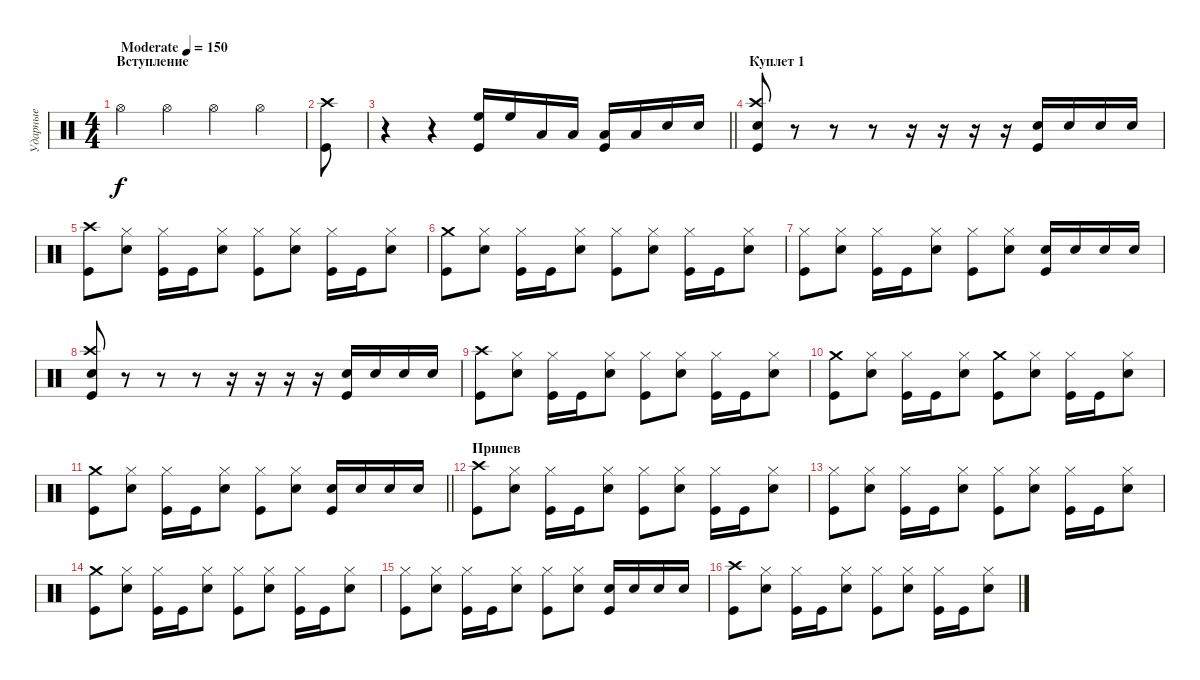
\track ("Ударные" "Ударные") {instrument percussion}
\staff {score}
\articulation defaults
\ts (4 4)
\section ("" "Вступление")
\tempo (150 "Moderate")
\clef neutral
\ks c "Hi-Hat (open)".4{dy f} "Hi-Hat (open)".4 "Hi-Hat (open)".4 "Hi-Hat (open)".4
|
("Kick (hit)" "Crash high (hit)").8 |
\barLineRight lightlight
r.4 r.4 ("High Floor Tom (hit)" "Kick (hit)").16 "High Floor Tom (hit)".16 "Low Tom (hit)".16 "Low Tom (hit)".16 ("Low Floor Tom (hit)" "Kick (hit)").16 "Low Floor Tom (hit)".16 "Snare (hit) 2".16 "Snare (hit) 2".16 |
\section ("" "Куплет 1")
("Kick (hit)" "Snare (hit) 2" "Crash high (hit)").8 r.8 r.8 r.8 r.16 r.16 r.16 r.16 ("Snare (hit) 2" "Kick (hit)").16 "Snare (hit) 2".16 "Snare (hit) 2".16 "Snare (hit) 2".16 |
("Kick (hit)" "Crash high (hit)").8 ("Snare (hit) 2" "Hi-Hat (closed)").8 ("Kick (hit)" "Hi-Hat (closed)").16 "Kick (hit)".16 ("Snare (hit) 2" "Hi-Hat (closed)").8 ("Kick (hit)" "Hi-Hat (closed)").8 ("Snare (hit) 2" "Hi-Hat (closed)").8 ("Kick (hit)" "Hi-Hat (closed)").16 "Kick (hit)".16 ("Snare (hit) 2" "Hi-Hat (closed)").8 |
("Kick (hit)" "Crash medium (hit)").8 ("Snare (hit) 2" "Hi-Hat (closed)").8 ("Kick (hit)" "Hi-Hat (closed)").16 "Kick (hit)".16 ("Snare (hit) 2" "Hi-Hat (closed)").8 ("Kick (hit)" "Hi-Hat (closed)").8 ("Snare (hit) 2" "Hi-Hat (closed)").8 ("Kick (hit)" "Hi-Hat (closed)").16 "Kick (hit)".16 ("Snare (hit) 2" "Hi-Hat (closed)").8 |
("Kick (hit)" "Hi-Hat (closed)").8 ("Snare (hit) 2" "Hi-Hat (closed)").8 ("Kick (hit)" "Hi-Hat (closed)").16 "Kick (hit)".16 ("Snare (hit) 2" "Hi-Hat (closed)").8 ("Kick (hit)" "Hi-Hat (closed)").8 ("Snare (hit) 2" "Hi-Hat (closed)").8 ("Snare (hit) 2" "Kick (hit)").16 "Snare (hit) 2".16 "Snare (hit) 2".16 "Snare (hit) 2".16 |
("Kick (hit)" "Snare (hit) 2" "Crash high (hit)").8 r.8 r.8 r.8 r.16 r.16 r.16 r.16 ("Snare (hit) 2" "Kick (hit)").16 "Snare (hit) 2".16 "Snare (hit) 2".16 "Snare (hit) 2".16 |
("Kick (hit)" "Crash high (hit)").8 ("Snare (hit) 2" "Hi-Hat (closed)").8 ("Kick (hit)" "Hi-Hat (closed)").16 "Kick (hit)".16 ("Snare (hit) 2" "Hi-Hat (closed)").8 ("Kick (hit)" "Hi-Hat (closed)").8 ("Snare (hit) 2" "Hi-Hat (closed)").8 ("Kick (hit)" "Hi-Hat (closed)").16 "Kick (hit)".16 ("Snare (hit) 2" "Hi-Hat (closed)").8 |
("Kick (hit)" "Crash medium (hit)").8 ("Snare (hit) 2" "Hi-Hat (closed)").8 ("Kick (hit)" "Hi-Hat (closed)").16 "Kick (hit)".16 ("Snare (hit) 2" "Hi-Hat (closed)").8 ("Kick (hit)" "Crash medium (hit)").8 ("Snare (hit) 2" "Hi-Hat (closed)").8 ("Kick (hit)" "Hi-Hat (closed)").16 "Kick (hit)".16 ("Snare (hit) 2" "Hi-Hat (closed)").8 |
\barLineRight lightlight
("Kick (hit)" "Crash medium (hit)").8 ("Snare (hit) 2" "Hi-Hat (closed)").8 ("Kick (hit)" "Hi-Hat (closed)").16 "Kick (hit)".16 ("Snare (hit) 2" "Hi-Hat (closed)").8 ("Kick (hit)" "Hi-Hat (closed)").8 ("Snare (hit) 2" "Hi-Hat (closed)").8 ("Snare (hit) 2" "Kick (hit)").16 "Snare (hit) 2".16 "Snare (hit) 2".16 "Snare (hit) 2".16 |
\section ("" "Припев")
("Kick (hit)" "Crash high (hit)").8 ("Snare (hit) 2" "Hi-Hat (closed)").8 ("Kick (hit)" "Hi-Hat (closed)").16 "Kick (hit)".16 ("Snare (hit) 2" "Hi-Hat (closed)").8 ("Kick (hit)" "Hi-Hat (closed)").8 ("Snare (hit) 2" "Hi-Hat (closed)").8 ("Kick (hit)" "Hi-Hat (closed)").16 "Kick (hit)".16 ("Snare (hit) 2" "Hi-Hat (closed)").8 |
("Kick (hit)" "Hi-Hat (closed)").8 ("Snare (hit) 2" "Hi-Hat (closed)").8 ("Kick (hit)" "Hi-Hat (closed)").16 "Kick (hit)".16 ("Snare (hit) 2" "Hi-Hat (closed)").8 ("Kick (hit)" "Hi-Hat (closed)").8 ("Snare (hit) 2" "Hi-Hat (closed)").8 ("Kick (hit)" "Hi-Hat (closed)").16 "Kick (hit)".16 ("Snare (hit) 2" "Hi-Hat (closed)").8 |
("Kick (hit)" "Crash medium (hit)").8 ("Snare (hit) 2" "Hi-Hat (closed)").8 ("Kick (hit)" "Hi-Hat (closed)").16 "Kick (hit)".16 ("Snare (hit) 2" "Hi-Hat (closed)").8 ("Kick (hit)" "Hi-Hat (closed)").8 ("Snare (hit) 2" "Hi-Hat (closed)").8 ("Kick (hit)" "Hi-Hat (closed)").16 "Kick (hit)".16 ("Snare (hit) 2" "Hi-Hat (closed)").8 |
("Kick (hit)" "Hi-Hat (closed)").8 ("Snare (hit) 2" "Hi-Hat (closed)").8 ("Kick (hit)" "Hi-Hat (closed)").16 "Kick (hit)".16 ("Snare (hit) 2" "Hi-Hat (closed)").8 ("Kick (hit)" "Hi-Hat (closed)").8 ("Snare (hit) 2" "Hi-Hat (closed)").8 ("Snare (hit) 2" "Kick (hit)").16 "Snare (hit) 2".16 "Snare (hit) 2".16 "Snare (hit) 2".16 |
("Kick (hit)" "Crash high (hit)").8 ("Snare (hit) 2" "Hi-Hat (closed)").8 ("Kick (hit)" "Hi-Hat (closed)").16 "Kick (hit)".16 ("Snare (hit) 2" "Hi-Hat (closed)").8 ("Kick (hit)" "Hi-Hat (closed)").8 ("Snare (hit) 2" "Hi-Hat (closed)").8 ("Kick (hit)" "Hi-Hat (closed)").16 "Kick (hit)".16 ("Snare (hit) 2" "Hi-Hat (closed)").8
